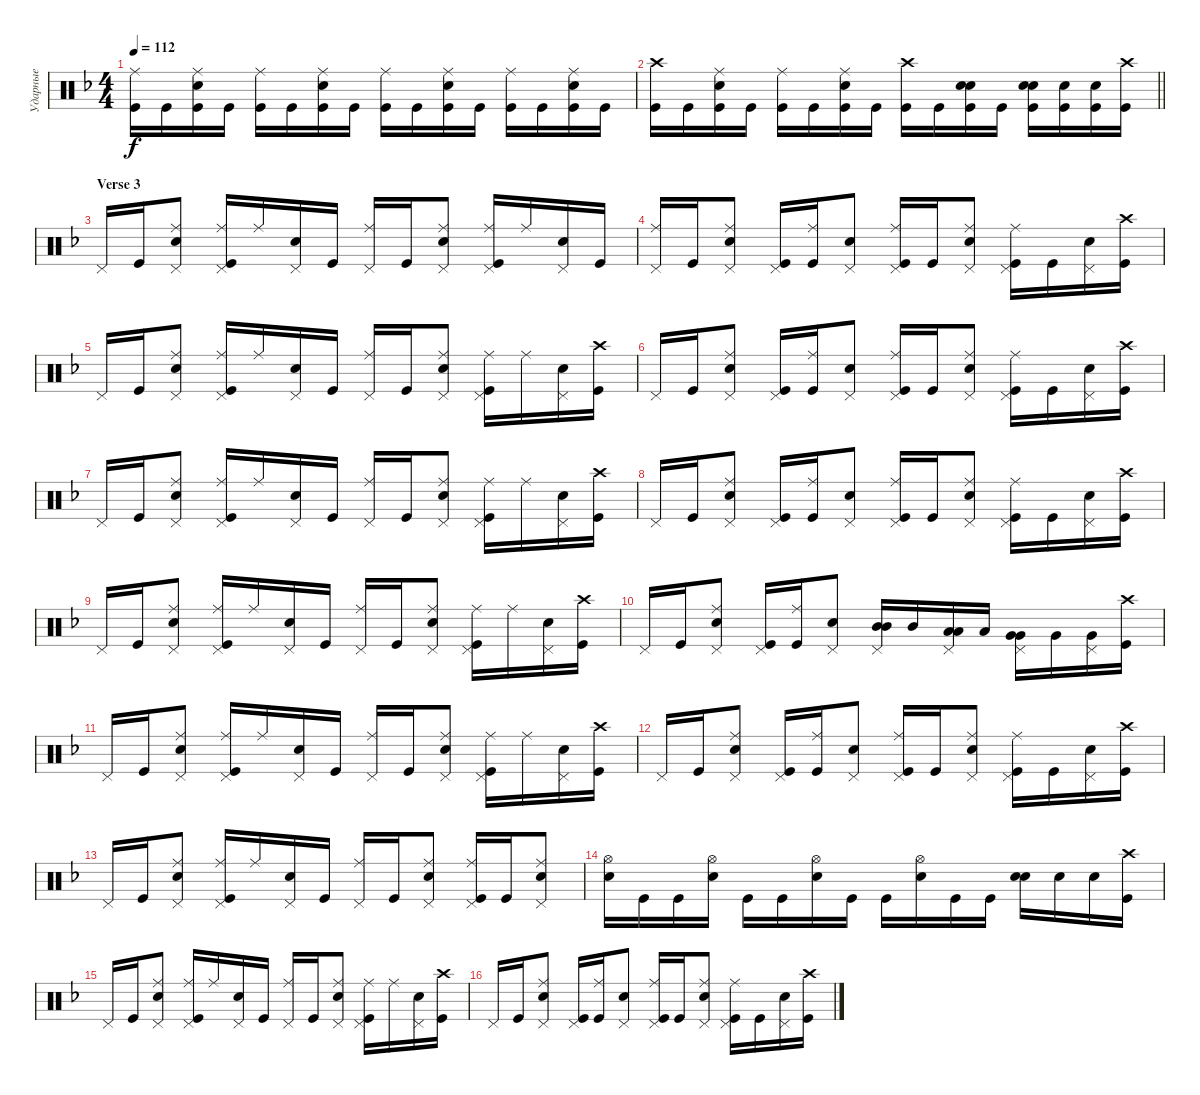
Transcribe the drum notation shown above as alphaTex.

\track ("Ударные" "Ударные") {instrument percussion}
\staff {score}
\articulation defaults
\ts (4 4)
\tempo 112
\clef neutral
\ks dminor
("Kick (hit)" "Ride (middle)").16{dy f} "Kick (hit)".16 ("Kick (hit)" "Snare (hit) 2" "Ride (middle)").16 "Kick (hit)".16 ("Kick (hit)" "Ride (middle)").16 "Kick (hit)".16 ("Kick (hit)" "Snare (hit) 2" "Ride (middle)").16 "Kick (hit)".16 ("Kick (hit)" "Ride (middle)").16 "Kick (hit)".16 ("Kick (hit)" "Snare (hit) 2" "Ride (middle)").16 "Kick (hit)".16 ("Kick (hit)" "Ride (middle)").16 "Kick (hit)".16 ("Kick (hit)" "Snare (hit) 2" "Ride (middle)").16 "Kick (hit)".16 |
\barLineRight lightlight
("Kick (hit)" "Crash high (hit)").16 "Kick (hit)".16 ("Kick (hit)" "Snare (hit) 2" "Ride (middle)").16 "Kick (hit)".16 ("Kick (hit)" "Ride (middle)").16 "Kick (hit)".16 ("Kick (hit)" "Snare (hit) 2" "Ride (middle)").16 "Kick (hit)".16 ("Kick (hit)" "Crash high (hit)").16 "Kick (hit)".16 ("Kick (hit)" "Snare (hit) 2" "Snare (hit) 2").16{bd 240} "Kick (hit)".16 ("Kick (hit)" "Snare (hit) 2" "Snare (hit) 2").16{bd 120} ("Kick (hit)" "Snare (hit) 2").16 ("Kick (hit)" "Snare (hit) 2").16 ("Kick (hit)" "Crash high (hit)").16 |
\section ("" "Verse 3")
"Pedal Hi-Hat (hit)".16 "Kick (hit)".16 ("Snare (hit) 2" "Pedal Hi-Hat (hit)" "Ride (middle)").8 ("Kick (hit)" "Pedal Hi-Hat (hit)" "Ride (middle)").16 "Ride (middle)".16 ("Snare (hit) 2" "Pedal Hi-Hat (hit)").16 "Kick (hit)".16 ("Pedal Hi-Hat (hit)" "Ride (middle)").16 "Kick (hit)".16 ("Snare (hit) 2" "Pedal Hi-Hat (hit)" "Ride (middle)").8 ("Kick (hit)" "Pedal Hi-Hat (hit)" "Ride (middle)").16 "Ride (middle)".16 ("Snare (hit) 2" "Pedal Hi-Hat (hit)").16 "Kick (hit)".16 |
("Pedal Hi-Hat (hit)" "Ride (middle)").16 "Kick (hit)".16 ("Snare (hit) 2" "Pedal Hi-Hat (hit)" "Ride (middle)").8 ("Kick (hit)" "Pedal Hi-Hat (hit)").16 ("Ride (middle)" "Kick (hit)").16 ("Snare (hit) 2" "Pedal Hi-Hat (hit)").8 ("Pedal Hi-Hat (hit)" "Ride (middle)" "Kick (hit)").16 "Kick (hit)".16 ("Snare (hit) 2" "Pedal Hi-Hat (hit)" "Ride (middle)").8 ("Kick (hit)" "Pedal Hi-Hat (hit)" "Ride (middle)").16 "Kick (hit)".16 ("Snare (hit) 2" "Pedal Hi-Hat (hit)").16 ("Kick (hit)" "Crash high (hit)").16 |
"Pedal Hi-Hat (hit)".16 "Kick (hit)".16 ("Snare (hit) 2" "Pedal Hi-Hat (hit)" "Ride (middle)").8 ("Kick (hit)" "Pedal Hi-Hat (hit)" "Ride (middle)").16 "Ride (middle)".16 ("Snare (hit) 2" "Pedal Hi-Hat (hit)").16 "Kick (hit)".16 ("Pedal Hi-Hat (hit)" "Ride (middle)").16 "Kick (hit)".16 ("Snare (hit) 2" "Pedal Hi-Hat (hit)" "Ride (middle)").8 ("Kick (hit)" "Pedal Hi-Hat (hit)" "Ride (middle)").16 "Ride (middle)".16 ("Snare (hit) 2" "Pedal Hi-Hat (hit)").16 ("Kick (hit)" "Crash high (hit)").16 |
"Pedal Hi-Hat (hit)".16 "Kick (hit)".16 ("Snare (hit) 2" "Pedal Hi-Hat (hit)" "Ride (middle)").8 ("Kick (hit)" "Pedal Hi-Hat (hit)").16 ("Ride (middle)" "Kick (hit)").16 ("Snare (hit) 2" "Pedal Hi-Hat (hit)").8 ("Pedal Hi-Hat (hit)" "Ride (middle)" "Kick (hit)").16 "Kick (hit)".16 ("Snare (hit) 2" "Pedal Hi-Hat (hit)" "Ride (middle)").8 ("Kick (hit)" "Pedal Hi-Hat (hit)" "Ride (middle)").16 "Kick (hit)".16 ("Snare (hit) 2" "Pedal Hi-Hat (hit)").16 ("Kick (hit)" "Crash high (hit)").16 |
"Pedal Hi-Hat (hit)".16 "Kick (hit)".16 ("Snare (hit) 2" "Pedal Hi-Hat (hit)" "Ride (middle)").8 ("Kick (hit)" "Pedal Hi-Hat (hit)" "Ride (middle)").16 "Ride (middle)".16 ("Snare (hit) 2" "Pedal Hi-Hat (hit)").16 "Kick (hit)".16 ("Pedal Hi-Hat (hit)" "Ride (middle)").16 "Kick (hit)".16 ("Snare (hit) 2" "Pedal Hi-Hat (hit)" "Ride (middle)").8 ("Kick (hit)" "Pedal Hi-Hat (hit)" "Ride (middle)").16 "Ride (middle)".16 ("Snare (hit) 2" "Pedal Hi-Hat (hit)").16 ("Kick (hit)" "Crash high (hit)").16 |
"Pedal Hi-Hat (hit)".16 "Kick (hit)".16 ("Snare (hit) 2" "Pedal Hi-Hat (hit)" "Ride (middle)").8 ("Kick (hit)" "Pedal Hi-Hat (hit)").16 ("Ride (middle)" "Kick (hit)").16 ("Snare (hit) 2" "Pedal Hi-Hat (hit)").8 ("Pedal Hi-Hat (hit)" "Ride (middle)" "Kick (hit)").16 "Kick (hit)".16 ("Snare (hit) 2" "Pedal Hi-Hat (hit)" "Ride (middle)").8 ("Kick (hit)" "Pedal Hi-Hat (hit)" "Ride (middle)").16 "Kick (hit)".16 ("Snare (hit) 2" "Pedal Hi-Hat (hit)").16 ("Kick (hit)" "Crash high (hit)").16 |
"Pedal Hi-Hat (hit)".16 "Kick (hit)".16 ("Snare (hit) 2" "Pedal Hi-Hat (hit)" "Ride (middle)").8 ("Kick (hit)" "Pedal Hi-Hat (hit)" "Ride (middle)").16 "Ride (middle)".16 ("Snare (hit) 2" "Pedal Hi-Hat (hit)").16 "Kick (hit)".16 ("Pedal Hi-Hat (hit)" "Ride (middle)").16 "Kick (hit)".16 ("Snare (hit) 2" "Pedal Hi-Hat (hit)" "Ride (middle)").8 ("Kick (hit)" "Pedal Hi-Hat (hit)" "Ride (middle)").16 "Ride (middle)".16 ("Snare (hit) 2" "Pedal Hi-Hat (hit)").16 ("Kick (hit)" "Crash high (hit)").16 |
"Pedal Hi-Hat (hit)".16 "Kick (hit)".16 ("Snare (hit) 2" "Pedal Hi-Hat (hit)" "Ride (middle)").8 ("Kick (hit)" "Pedal Hi-Hat (hit)").16 ("Ride (middle)" "Kick (hit)").16 ("Snare (hit) 2" "Pedal Hi-Hat (hit)").8 ("Pedal Hi-Hat (hit)" "Mid Tom (hit)" "Mid Tom (hit)").16{bd 480} "Mid Tom (hit)".16 ("Low Tom (hit)" "Pedal Hi-Hat (hit)" "Low Tom (hit)").16{bd 240} "Low Tom (hit)".16 ("Very Low Tom (hit)" "Pedal Hi-Hat (hit)" "Very Low Tom (hit)").16{bd 240} "Very Low Tom (hit)".16 ("Pedal Hi-Hat (hit)" "Very Low Tom (hit)").16 ("Kick (hit)" "Crash high (hit)").16 |
"Pedal Hi-Hat (hit)".16 "Kick (hit)".16 ("Snare (hit) 2" "Pedal Hi-Hat (hit)" "Ride (middle)").8 ("Kick (hit)" "Pedal Hi-Hat (hit)" "Ride (middle)").16 "Ride (middle)".16 ("Snare (hit) 2" "Pedal Hi-Hat (hit)").16 "Kick (hit)".16 ("Pedal Hi-Hat (hit)" "Ride (middle)").16 "Kick (hit)".16 ("Snare (hit) 2" "Pedal Hi-Hat (hit)" "Ride (middle)").8 ("Kick (hit)" "Pedal Hi-Hat (hit)" "Ride (middle)").16 "Ride (middle)".16 ("Snare (hit) 2" "Pedal Hi-Hat (hit)").16 ("Kick (hit)" "Crash high (hit)").16 |
"Pedal Hi-Hat (hit)".16 "Kick (hit)".16 ("Snare (hit) 2" "Pedal Hi-Hat (hit)" "Ride (middle)").8 ("Kick (hit)" "Pedal Hi-Hat (hit)").16 ("Ride (middle)" "Kick (hit)").16 ("Snare (hit) 2" "Pedal Hi-Hat (hit)").8 ("Pedal Hi-Hat (hit)" "Ride (middle)" "Kick (hit)").16 "Kick (hit)".16 ("Snare (hit) 2" "Pedal Hi-Hat (hit)" "Ride (middle)").8 ("Kick (hit)" "Pedal Hi-Hat (hit)" "Ride (middle)").16 "Kick (hit)".16 ("Snare (hit) 2" "Pedal Hi-Hat (hit)").16 ("Kick (hit)" "Crash high (hit)").16 |
"Pedal Hi-Hat (hit)".16 "Kick (hit)".16 ("Snare (hit) 2" "Pedal Hi-Hat (hit)" "Ride (middle)").8 ("Kick (hit)" "Pedal Hi-Hat (hit)" "Ride (middle)").16 "Ride (middle)".16 ("Snare (hit) 2" "Pedal Hi-Hat (hit)").16 "Kick (hit)".16 ("Pedal Hi-Hat (hit)" "Ride (middle)").16 "Kick (hit)".16 ("Snare (hit) 2" "Pedal Hi-Hat (hit)" "Ride (middle)").8 ("Kick (hit)" "Pedal Hi-Hat (hit)" "Ride (middle)").16 "Kick (hit)".16 ("Snare (hit) 2" "Pedal Hi-Hat (hit)" "Ride (middle)").8 |
("Snare (hit) 2" "Hi-Hat (open)").16 "Kick (hit)".16 "Kick (hit)".16 ("Snare (hit) 2" "Hi-Hat (open)").16 "Kick (hit)".16 "Kick (hit)".16 ("Snare (hit) 2" "Hi-Hat (open)").16 "Kick (hit)".16 "Kick (hit)".16 ("Snare (hit) 2" "Hi-Hat (open)").16 "Kick (hit)".16 "Kick (hit)".16 ("Snare (hit) 2" "Snare (hit) 2").16{bd 240} "Snare (hit) 2".16 "Snare (hit) 2".16 ("Kick (hit)" "Crash high (hit)").16 |
"Pedal Hi-Hat (hit)".16 "Kick (hit)".16 ("Snare (hit) 2" "Pedal Hi-Hat (hit)" "Ride (middle)").8 ("Kick (hit)" "Pedal Hi-Hat (hit)" "Ride (middle)").16 "Ride (middle)".16 ("Snare (hit) 2" "Pedal Hi-Hat (hit)").16 "Kick (hit)".16 ("Pedal Hi-Hat (hit)" "Ride (middle)").16 "Kick (hit)".16 ("Snare (hit) 2" "Pedal Hi-Hat (hit)" "Ride (middle)").8 ("Kick (hit)" "Pedal Hi-Hat (hit)" "Ride (middle)").16 "Ride (middle)".16 ("Snare (hit) 2" "Pedal Hi-Hat (hit)").16 ("Kick (hit)" "Crash high (hit)").16 |
"Pedal Hi-Hat (hit)".16 "Kick (hit)".16 ("Snare (hit) 2" "Pedal Hi-Hat (hit)" "Ride (middle)").8 ("Kick (hit)" "Pedal Hi-Hat (hit)").16 ("Ride (middle)" "Kick (hit)").16 ("Snare (hit) 2" "Pedal Hi-Hat (hit)").8 ("Pedal Hi-Hat (hit)" "Ride (middle)" "Kick (hit)").16 "Kick (hit)".16 ("Snare (hit) 2" "Pedal Hi-Hat (hit)" "Ride (middle)").8 ("Kick (hit)" "Pedal Hi-Hat (hit)" "Ride (middle)").16 "Kick (hit)".16 ("Snare (hit) 2" "Pedal Hi-Hat (hit)").16 ("Kick (hit)" "Crash high (hit)").16
